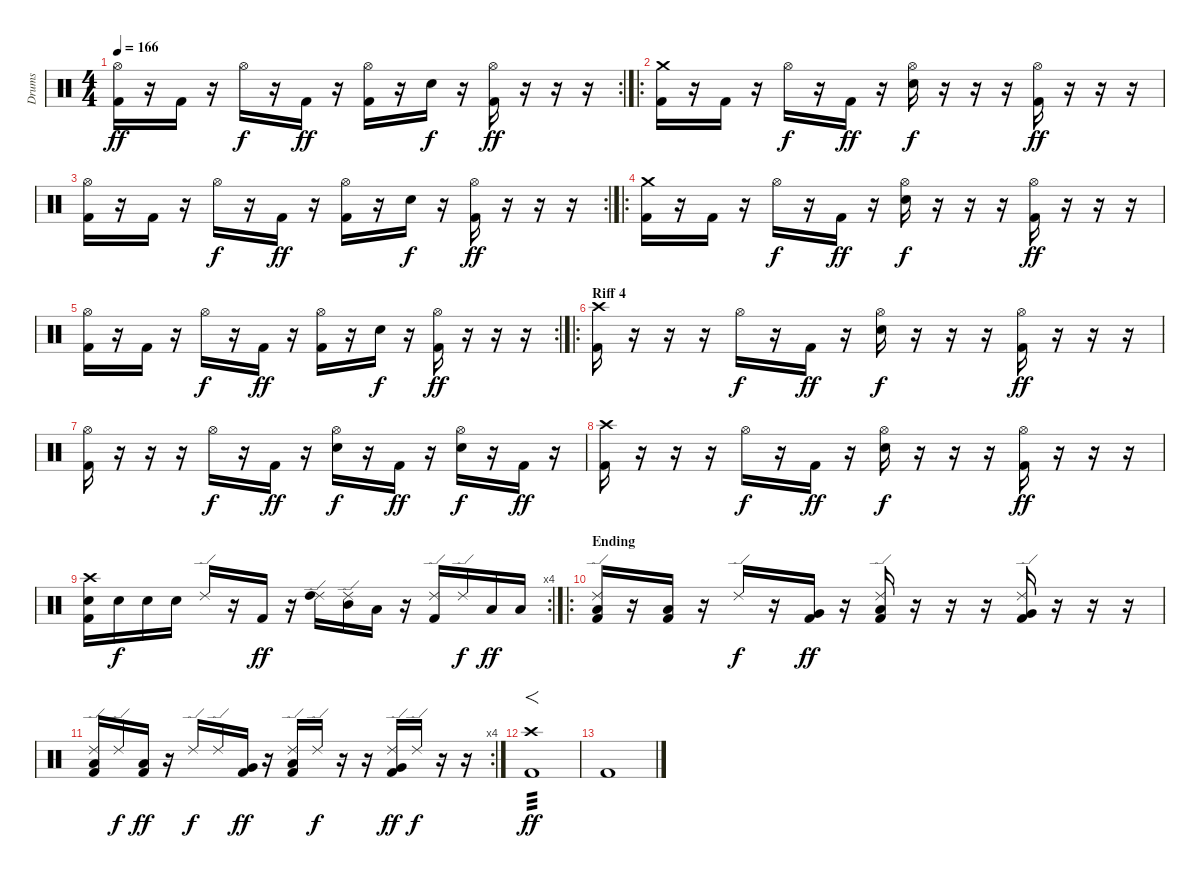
\track ("Drums" "Drums") {instrument percussion}
\staff {score}
\articulation defaults
\rc 2
\ts (4 4)
\tempo 166
\clef neutral
\ks c
("Hi-Hat (open)" "Kick (hit) 2").16{dy ff} r.16 "Kick (hit) 2".16 r.16 "Hi-Hat (open)".16{dy f} r.16 "Kick (hit) 2".16{dy ff} r.16 ("Hi-Hat (open)" "Kick (hit) 2").16 r.16 "Electric Snare (hit)".16{dy f} r.16 ("Hi-Hat (open)" "Kick (hit) 2").16{dy ff} r.16 r.16 r.16 |
\ro
("Crash medium (hit)" "Kick (hit) 2").16 r.16 "Kick (hit) 2".16 r.16 "Hi-Hat (open)".16{dy f} r.16 "Kick (hit) 2".16{dy ff} r.16 ("Hi-Hat (open)" "Electric Snare (hit)").16{dy f} r.16 r.16 r.16 ("Hi-Hat (open)" "Kick (hit) 2").16{dy ff} r.16 r.16 r.16 |
\rc 2
("Hi-Hat (open)" "Kick (hit) 2").16 r.16 "Kick (hit) 2".16 r.16 "Hi-Hat (open)".16{dy f} r.16 "Kick (hit) 2".16{dy ff} r.16 ("Hi-Hat (open)" "Kick (hit) 2").16 r.16 "Electric Snare (hit)".16{dy f} r.16 ("Hi-Hat (open)" "Kick (hit) 2").16{dy ff} r.16 r.16 r.16 |
\ro
("Crash medium (hit)" "Kick (hit) 2").16 r.16 "Kick (hit) 2".16 r.16 "Hi-Hat (open)".16{dy f} r.16 "Kick (hit) 2".16{dy ff} r.16 ("Hi-Hat (open)" "Electric Snare (hit)").16{dy f} r.16 r.16 r.16 ("Hi-Hat (open)" "Kick (hit) 2").16{dy ff} r.16 r.16 r.16 |
\rc 2
("Hi-Hat (open)" "Kick (hit) 2").16 r.16 "Kick (hit) 2".16 r.16 "Hi-Hat (open)".16{dy f} r.16 "Kick (hit) 2".16{dy ff} r.16 ("Hi-Hat (open)" "Kick (hit) 2").16 r.16 "Electric Snare (hit)".16{dy f} r.16 ("Hi-Hat (open)" "Kick (hit) 2").16{dy ff} r.16 r.16 r.16 |
\ro
\section ("" "Riff 4")
("Crash high (hit)" "Kick (hit) 2").16 r.16 r.16 r.16 "Hi-Hat (open)".16{dy f} r.16 "Kick (hit) 2".16{dy ff} r.16 ("Hi-Hat (open)" "Electric Snare (hit)").16{dy f} r.16 r.16 r.16 ("Hi-Hat (open)" "Kick (hit) 2").16{dy ff} r.16 r.16 r.16 |
("Hi-Hat (open)" "Kick (hit) 2").16 r.16 r.16 r.16 "Hi-Hat (open)".16{dy f} r.16 "Kick (hit) 2".16{dy ff} r.16 ("Hi-Hat (open)" "Electric Snare (hit)").16{dy f} r.16 "Kick (hit) 2".16{dy ff} r.16 ("Hi-Hat (open)" "Electric Snare (hit)").16{dy f} r.16 "Kick (hit) 2".16{dy ff} r.16 |
("Crash high (hit)" "Kick (hit) 2").16 r.16 r.16 r.16 "Hi-Hat (open)".16{dy f} r.16 "Kick (hit) 2".16{dy ff} r.16 ("Hi-Hat (open)" "Electric Snare (hit)").16{dy f} r.16 r.16 r.16 ("Hi-Hat (open)" "Kick (hit) 2").16{dy ff} r.16 r.16 r.16 |
\rc 4
("Crash high (hit)" "Electric Snare (hit)" "Kick (hit) 2").16 "Electric Snare (hit)".16{dy f} "Electric Snare (hit)".16 "Electric Snare (hit)".16 "Ride (edge) 2".16 r.16 "Kick (hit) 2".16{dy ff} r.16 ("Ride (edge) 2" "High Tom (hit)").16 ("Ride (edge) 2" "Mid Tom (hit)").16 "Low Tom (hit)".16 r.16 ("Ride (edge) 2" "Kick (hit) 2").16 "Ride (edge) 2".16{dy f} "Low Tom (hit)".16{dy ff} "Low Tom (hit)".16 |
\ro
\section ("" "Ending")
("Ride (edge) 2" "Low Tom (hit)" "Kick (hit) 2").16 r.16 ("Low Floor Tom (hit)" "Kick (hit) 2").16 r.16 "Ride (edge) 2".16{dy f} r.16 ("Very Low Tom (hit)" "Kick (hit) 2").16{dy ff} r.16 ("Ride (edge) 2" "Low Floor Tom (hit)" "Kick (hit) 2").16 r.16 r.16 r.16 ("Ride (edge) 2" "Very Low Tom (hit)" "Kick (hit) 2").16 r.16 r.16 r.16 |
\rc 4
("Ride (edge) 2" "Low Tom (hit)" "Kick (hit) 2").16 "Ride (edge) 2".16{dy f} ("Low Floor Tom (hit)" "Kick (hit) 2").16{dy ff} r.16 "Ride (edge) 2".16{dy f} "Ride (edge) 2".16 ("Very Low Tom (hit)" "Kick (hit) 2").16{dy ff} r.16 ("Ride (edge) 2" "Low Floor Tom (hit)" "Kick (hit) 2").16 "Ride (edge) 2".16{dy f} r.16 r.16 ("Ride (edge) 2" "Very Low Tom (hit)" "Kick (hit) 2").16{dy ff} "Ride (edge) 2".16{dy f} r.16 r.16 |
("Crash high (hit)" "Kick (hit) 2").1{f tp 3 dy ff} |
"Kick (hit) 2".1
